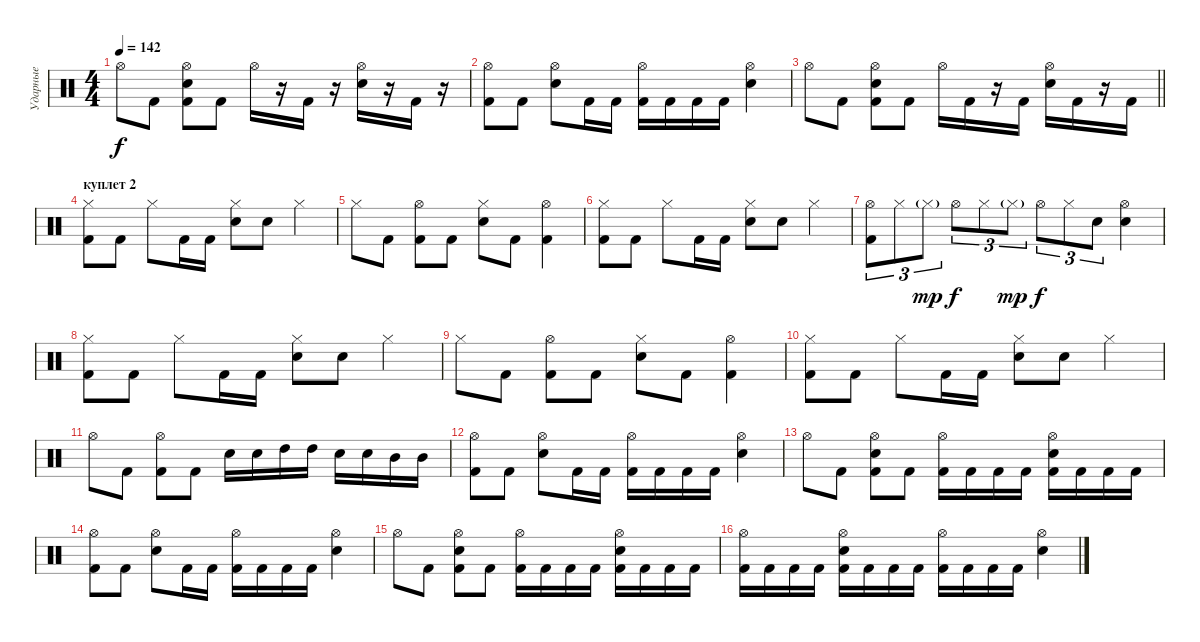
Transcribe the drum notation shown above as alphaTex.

\track ("Ударные" "Ударные") {instrument percussion}
\staff {score}
\articulation defaults
\ts (4 4)
\tempo 142
\clef neutral
\ks c "Hi-Hat (open)".8{dy f} "Kick (hit) 2".8
("Kick (hit) 2" "Snare (hit) 2" "Hi-Hat (open)").8 "Kick (hit) 2".8 "Hi-Hat (open)".16 r.16 "Kick (hit) 2".16 r.16 ("Snare (hit) 2" "Hi-Hat (open)").16 r.16 "Kick (hit) 2".16 r.16 |
("Kick (hit) 2" "Hi-Hat (open)").8 "Kick (hit) 2".8 ("Snare (hit) 2" "Hi-Hat (open)").8 "Kick (hit) 2".16 "Kick (hit) 2".16 ("Kick (hit) 2" "Hi-Hat (open)").16 "Kick (hit) 2".16 "Kick (hit) 2".16 "Kick (hit) 2".16 ("Snare (hit) 2" "Hi-Hat (open)").4 |
\barLineRight lightlight "Hi-Hat (open)".8 "Kick (hit) 2".8
("Kick (hit) 2" "Snare (hit) 2" "Hi-Hat (open)").8 "Kick (hit) 2".8 "Hi-Hat (open)".16 "Kick (hit) 2".16 r.16 "Kick (hit) 2".16 ("Snare (hit) 2" "Hi-Hat (open)").16 "Kick (hit) 2".16 r.16 "Kick (hit) 2".16 |
\section ("" "куплет 2")
("Kick (hit) 2" "Hi-Hat (closed)").8 "Kick (hit) 2".8 "Hi-Hat (closed)".8 "Kick (hit) 2".16 "Kick (hit) 2".16 ("Snare (hit) 2" "Hi-Hat (closed)").8 "Snare (hit) 2".8 "Hi-Hat (closed)".4 |
"Hi-Hat (closed)".8 "Kick (hit) 2".8 ("Kick (hit) 2" "Hi-Hat (open)").8 "Kick (hit) 2".8 ("Snare (hit) 2" "Hi-Hat (closed)").8 "Kick (hit) 2".8 ("Kick (hit) 2" "Hi-Hat (open)").4 |
("Kick (hit) 2" "Hi-Hat (closed)").8 "Kick (hit) 2".8 "Hi-Hat (closed)".8 "Kick (hit) 2".16 "Kick (hit) 2".16 ("Snare (hit) 2" "Hi-Hat (closed)").8 "Snare (hit) 2".8 "Hi-Hat (closed)".4 |
("Kick (hit) 2" "Hi-Hat (open)").8{tu (3 2)} "Hi-Hat (closed)".8{tu (3 2)} "Hi-Hat (closed)"{g}.8{tu (3 2) dy mp} "Hi-Hat (open)".8{tu (3 2) dy f} "Hi-Hat (closed)".8{tu (3 2)} "Hi-Hat (closed)"{g}.8{tu (3 2) dy mp} "Hi-Hat (open)".8{tu (3 2) dy f} "Hi-Hat (closed)".8{tu (3 2)} "Electric Snare (hit)".8{tu (3 2)} ("Snare (hit) 2" "Hi-Hat (open)").4 |
("Kick (hit) 2" "Hi-Hat (closed)").8 "Kick (hit) 2".8 "Hi-Hat (closed)".8 "Kick (hit) 2".16 "Kick (hit) 2".16 ("Snare (hit) 2" "Hi-Hat (closed)").8 "Snare (hit) 2".8 "Hi-Hat (closed)".4 |
"Hi-Hat (closed)".8 "Kick (hit) 2".8 ("Kick (hit) 2" "Hi-Hat (open)").8 "Kick (hit) 2".8 ("Snare (hit) 2" "Hi-Hat (closed)").8 "Kick (hit) 2".8 ("Kick (hit) 2" "Hi-Hat (open)").4 |
("Kick (hit) 2" "Hi-Hat (closed)").8 "Kick (hit) 2".8 "Hi-Hat (closed)".8 "Kick (hit) 2".16 "Kick (hit) 2".16 ("Snare (hit) 2" "Hi-Hat (closed)").8 "Snare (hit) 2".8 "Hi-Hat (closed)".4 |
"Hi-Hat (open)".8 "Kick (hit) 2".8 ("Kick (hit) 2" "Hi-Hat (open)").8 "Kick (hit) 2".8 "Snare (hit) 2".16 "Snare (hit) 2".16 "High Tom (hit)".16 "High Tom (hit)".16 "Snare (hit) 2".16 "Snare (hit) 2".16 "Mid Tom (hit)".16 "Mid Tom (hit)".16 |
("Kick (hit) 2" "Hi-Hat (open)").8 "Kick (hit) 2".8 ("Snare (hit) 2" "Hi-Hat (open)").8 "Kick (hit) 2".16 "Kick (hit) 2".16 ("Kick (hit) 2" "Hi-Hat (open)").16 "Kick (hit) 2".16 "Kick (hit) 2".16 "Kick (hit) 2".16 ("Snare (hit) 2" "Hi-Hat (open)").4 |
"Hi-Hat (open)".8 "Kick (hit) 2".8 ("Kick (hit) 2" "Snare (hit) 2" "Hi-Hat (open)").8 "Kick (hit) 2".8 ("Kick (hit) 2" "Hi-Hat (open)").16 "Kick (hit) 2".16 "Kick (hit) 2".16 "Kick (hit) 2".16 ("Kick (hit) 2" "Snare (hit) 2" "Hi-Hat (open)").16 "Kick (hit) 2".16 "Kick (hit) 2".16 "Kick (hit) 2".16 |
("Kick (hit) 2" "Hi-Hat (open)").8 "Kick (hit) 2".8 ("Snare (hit) 2" "Hi-Hat (open)").8 "Kick (hit) 2".16 "Kick (hit) 2".16 ("Kick (hit) 2" "Hi-Hat (open)").16 "Kick (hit) 2".16 "Kick (hit) 2".16 "Kick (hit) 2".16 ("Snare (hit) 2" "Hi-Hat (open)").4 |
"Hi-Hat (open)".8 "Kick (hit) 2".8 ("Kick (hit) 2" "Snare (hit) 2" "Hi-Hat (open)").8 "Kick (hit) 2".8 ("Kick (hit) 2" "Hi-Hat (open)").16 "Kick (hit) 2".16 "Kick (hit) 2".16 "Kick (hit) 2".16 ("Kick (hit) 2" "Snare (hit) 2" "Hi-Hat (open)").16 "Kick (hit) 2".16 "Kick (hit) 2".16 "Kick (hit) 2".16 |
("Kick (hit) 2" "Hi-Hat (open)").16 "Kick (hit) 2".16 "Kick (hit) 2".16 "Kick (hit) 2".16 ("Kick (hit) 2" "Snare (hit) 2" "Hi-Hat (open)").16 "Kick (hit) 2".16 "Kick (hit) 2".16 "Kick (hit) 2".16 ("Kick (hit) 2" "Hi-Hat (open)").16 "Kick (hit) 2".16 "Kick (hit) 2".16 "Kick (hit) 2".16 ("Snare (hit) 2" "Hi-Hat (open)").4
